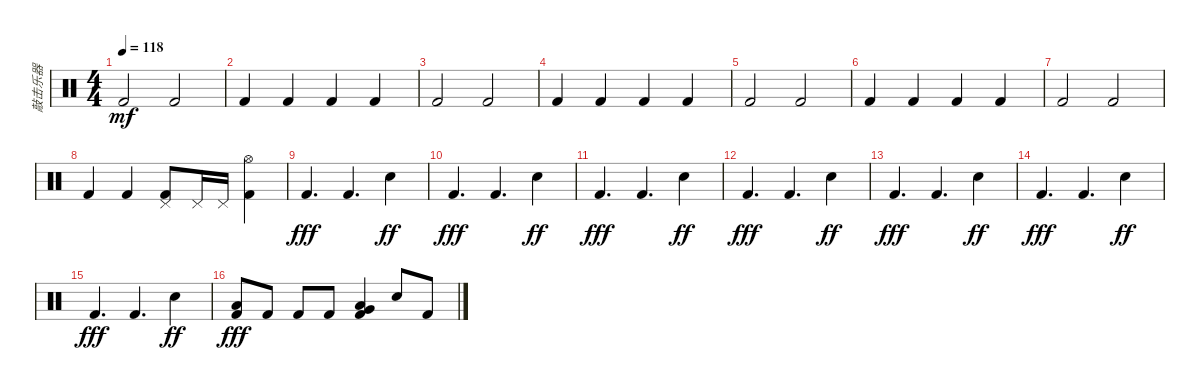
\track ("敲击乐器" "敲击乐器") {instrument percussion}
\staff {score}
\articulation defaults
\ts (4 4)
\tempo 118
\clef neutral
\ks c "Kick (hit) 2".2{dy mf} "Kick (hit) 2".2
|
"Kick (hit) 2".4 "Kick (hit) 2".4 "Kick (hit) 2".4 "Kick (hit) 2".4 |
"Kick (hit) 2".2 "Kick (hit) 2".2 |
"Kick (hit) 2".4 "Kick (hit) 2".4 "Kick (hit) 2".4 "Kick (hit) 2".4 |
"Kick (hit) 2".2 "Kick (hit) 2".2 |
"Kick (hit) 2".4 "Kick (hit) 2".4 "Kick (hit) 2".4 "Kick (hit) 2".4 |
"Kick (hit) 2".2 "Kick (hit) 2".2 |
"Kick (hit) 2".4 "Kick (hit) 2".4 ("Pedal Hi-Hat (hit)" "Kick (hit) 2").8 "Pedal Hi-Hat (hit)".16 "Pedal Hi-Hat (hit)".16 ("Hi-Hat (open)" "Kick (hit) 2").4 |
"Kick (hit) 2".4{d dy fff} "Kick (hit) 2".4{d} "Snare (hit) 2".4{dy ff} |
"Kick (hit) 2".4{d dy fff} "Kick (hit) 2".4{d} "Snare (hit) 2".4{dy ff} |
"Kick (hit) 2".4{d dy fff} "Kick (hit) 2".4{d} "Snare (hit) 2".4{dy ff} |
"Kick (hit) 2".4{d dy fff} "Kick (hit) 2".4{d} "Snare (hit) 2".4{dy ff} |
"Kick (hit) 2".4{d dy fff} "Kick (hit) 2".4{d} "Snare (hit) 2".4{dy ff} |
"Kick (hit) 2".4{d dy fff} "Kick (hit) 2".4{d} "Snare (hit) 2".4{dy ff} |
"Kick (hit) 2".4{d dy fff} "Kick (hit) 2".4{d} "Snare (hit) 2".4{dy ff} |
("Low Tom (hit)" "Kick (hit) 2").8{dy fff} "Kick (hit) 2".8 "Kick (hit) 2".8 "Kick (hit) 2".8 ("Very Low Tom (hit)" "Low Floor Tom (hit)" "Kick (hit) 2").4 "Snare (hit) 2".8 "Kick (hit) 2".8
